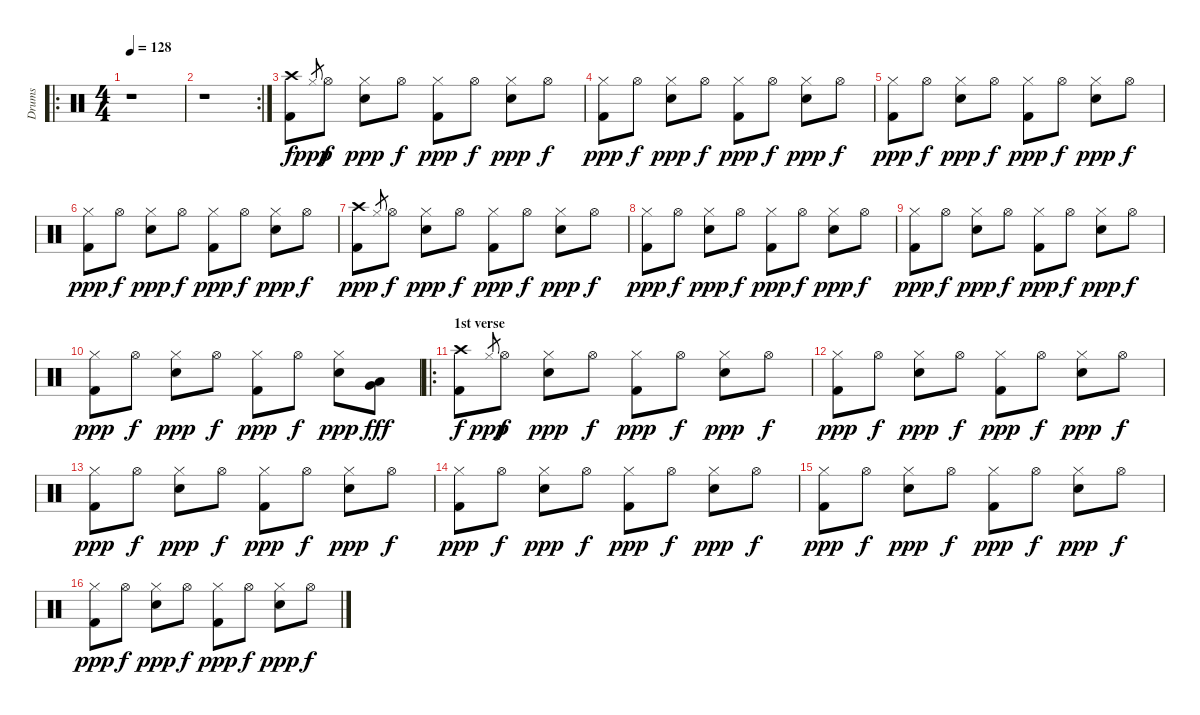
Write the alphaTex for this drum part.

\track ("Drums" "Drums") {instrument percussion}
\staff {score}
\articulation defaults
\ro
\ts (4 4)
\tempo 128
\clef neutral
\ks c
r.1{dy f} |
\rc 2
r.1 |
("Crash high (hit)" "Kick (hit) 2").8 "Hi-Hat (closed)".8{gr dy ppp} "Hi-Hat (open)".8{dy f} ("Hi-Hat (closed)" "Snare (hit) 2").8{dy ppp} "Hi-Hat (open)".8{dy f} ("Hi-Hat (closed)" "Kick (hit) 2").8{dy ppp} "Hi-Hat (open)".8{dy f} ("Hi-Hat (closed)" "Snare (hit) 2").8{dy ppp} "Hi-Hat (open)".8{dy f} |
("Hi-Hat (closed)" "Kick (hit) 2").8{dy ppp} "Hi-Hat (open)".8{dy f} ("Hi-Hat (closed)" "Snare (hit) 2").8{dy ppp} "Hi-Hat (open)".8{dy f} ("Hi-Hat (closed)" "Kick (hit) 2").8{dy ppp} "Hi-Hat (open)".8{dy f} ("Hi-Hat (closed)" "Snare (hit) 2").8{dy ppp} "Hi-Hat (open)".8{dy f} |
("Hi-Hat (closed)" "Kick (hit) 2").8{dy ppp} "Hi-Hat (open)".8{dy f} ("Hi-Hat (closed)" "Snare (hit) 2").8{dy ppp} "Hi-Hat (open)".8{dy f} ("Hi-Hat (closed)" "Kick (hit) 2").8{dy ppp} "Hi-Hat (open)".8{dy f} ("Hi-Hat (closed)" "Snare (hit) 2").8{dy ppp} "Hi-Hat (open)".8{dy f} |
("Hi-Hat (closed)" "Kick (hit) 2").8{dy ppp} "Hi-Hat (open)".8{dy f} ("Hi-Hat (closed)" "Snare (hit) 2").8{dy ppp} "Hi-Hat (open)".8{dy f} ("Hi-Hat (closed)" "Kick (hit) 2").8{dy ppp} "Hi-Hat (open)".8{dy f} ("Hi-Hat (closed)" "Snare (hit) 2").8{dy ppp} "Hi-Hat (open)".8{dy f} |
("Crash high (hit)" "Kick (hit) 2").8{dy ppp} "Hi-Hat (closed)".8{gr} "Hi-Hat (open)".8{dy f} ("Hi-Hat (closed)" "Snare (hit) 2").8{dy ppp} "Hi-Hat (open)".8{dy f} ("Hi-Hat (closed)" "Kick (hit) 2").8{dy ppp} "Hi-Hat (open)".8{dy f} ("Hi-Hat (closed)" "Snare (hit) 2").8{dy ppp} "Hi-Hat (open)".8{dy f} |
("Hi-Hat (closed)" "Kick (hit) 2").8{dy ppp} "Hi-Hat (open)".8{dy f} ("Hi-Hat (closed)" "Snare (hit) 2").8{dy ppp} "Hi-Hat (open)".8{dy f} ("Hi-Hat (closed)" "Kick (hit) 2").8{dy ppp} "Hi-Hat (open)".8{dy f} ("Hi-Hat (closed)" "Snare (hit) 2").8{dy ppp} "Hi-Hat (open)".8{dy f} |
("Hi-Hat (closed)" "Kick (hit) 2").8{dy ppp} "Hi-Hat (open)".8{dy f} ("Hi-Hat (closed)" "Snare (hit) 2").8{dy ppp} "Hi-Hat (open)".8{dy f} ("Hi-Hat (closed)" "Kick (hit) 2").8{dy ppp} "Hi-Hat (open)".8{dy f} ("Hi-Hat (closed)" "Snare (hit) 2").8{dy ppp} "Hi-Hat (open)".8{dy f} |
("Hi-Hat (closed)" "Kick (hit) 2").8{dy ppp} "Hi-Hat (open)".8{dy f} ("Hi-Hat (closed)" "Snare (hit) 2").8{dy ppp} "Hi-Hat (open)".8{dy f} ("Hi-Hat (closed)" "Kick (hit) 2").8{dy ppp} "Hi-Hat (open)".8{dy f} ("Hi-Hat (closed)" "Snare (hit) 2").8{dy ppp} ("Low Tom (hit)" "Very Low Tom (hit)").8{dy fff} |
\ro
\section ("" "1st verse")
("Crash high (hit)" "Kick (hit) 2").8{dy f} "Hi-Hat (closed)".8{gr dy ppp} "Hi-Hat (open)".8{dy f} ("Hi-Hat (closed)" "Snare (hit) 2").8{dy ppp} "Hi-Hat (open)".8{dy f} ("Hi-Hat (closed)" "Kick (hit) 2").8{dy ppp} "Hi-Hat (open)".8{dy f} ("Hi-Hat (closed)" "Snare (hit) 2").8{dy ppp} "Hi-Hat (open)".8{dy f} |
("Hi-Hat (closed)" "Kick (hit) 2").8{dy ppp} "Hi-Hat (open)".8{dy f} ("Hi-Hat (closed)" "Snare (hit) 2").8{dy ppp} "Hi-Hat (open)".8{dy f} ("Hi-Hat (closed)" "Kick (hit) 2").8{dy ppp} "Hi-Hat (open)".8{dy f} ("Hi-Hat (closed)" "Snare (hit) 2").8{dy ppp} "Hi-Hat (open)".8{dy f} |
("Hi-Hat (closed)" "Kick (hit) 2").8{dy ppp} "Hi-Hat (open)".8{dy f} ("Hi-Hat (closed)" "Snare (hit) 2").8{dy ppp} "Hi-Hat (open)".8{dy f} ("Hi-Hat (closed)" "Kick (hit) 2").8{dy ppp} "Hi-Hat (open)".8{dy f} ("Hi-Hat (closed)" "Snare (hit) 2").8{dy ppp} "Hi-Hat (open)".8{dy f} |
("Hi-Hat (closed)" "Kick (hit) 2").8{dy ppp} "Hi-Hat (open)".8{dy f} ("Hi-Hat (closed)" "Snare (hit) 2").8{dy ppp} "Hi-Hat (open)".8{dy f} ("Hi-Hat (closed)" "Kick (hit) 2").8{dy ppp} "Hi-Hat (open)".8{dy f} ("Hi-Hat (closed)" "Snare (hit) 2").8{dy ppp} "Hi-Hat (open)".8{dy f} |
("Hi-Hat (closed)" "Kick (hit) 2").8{dy ppp} "Hi-Hat (open)".8{dy f} ("Hi-Hat (closed)" "Snare (hit) 2").8{dy ppp} "Hi-Hat (open)".8{dy f} ("Hi-Hat (closed)" "Kick (hit) 2").8{dy ppp} "Hi-Hat (open)".8{dy f} ("Hi-Hat (closed)" "Snare (hit) 2").8{dy ppp} "Hi-Hat (open)".8{dy f} |
("Hi-Hat (closed)" "Kick (hit) 2").8{dy ppp} "Hi-Hat (open)".8{dy f} ("Hi-Hat (closed)" "Snare (hit) 2").8{dy ppp} "Hi-Hat (open)".8{dy f} ("Hi-Hat (closed)" "Kick (hit) 2").8{dy ppp} "Hi-Hat (open)".8{dy f} ("Hi-Hat (closed)" "Snare (hit) 2").8{dy ppp} "Hi-Hat (open)".8{dy f}
